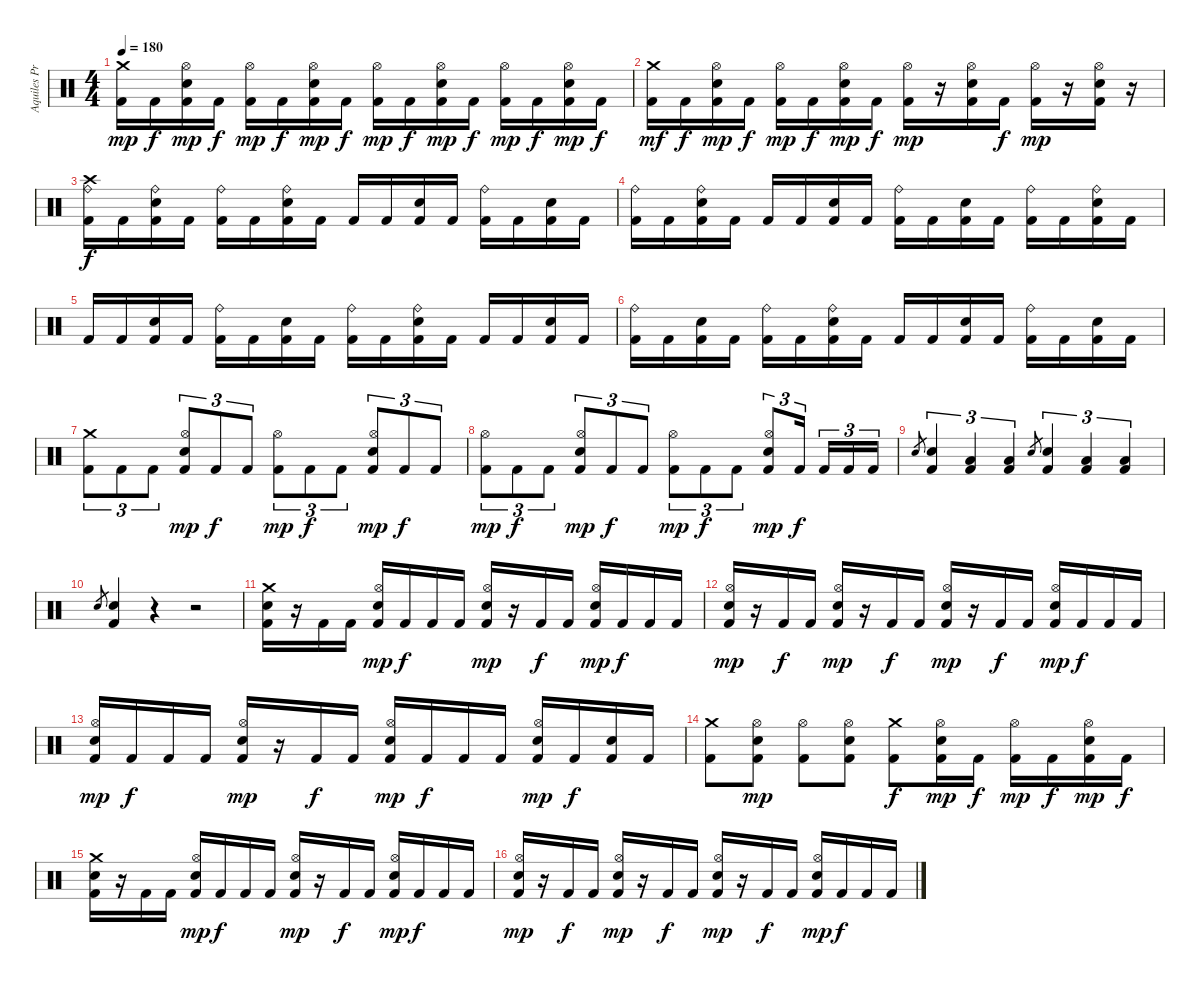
\track ("Aquiles Priester" "Aquiles Pr") {instrument percussion}
\staff {score}
\articulation defaults
\ts (4 4)
\tempo 180
\clef neutral
\ks c
("Crash medium (hit)" "Kick (hit) 2").16{dy mp} "Kick (hit) 2".16{dy f} ("Hi-Hat (open)" "Snare (hit) 2" "Kick (hit) 2").16{dy mp} "Kick (hit) 2".16{dy f} ("Hi-Hat (open)" "Kick (hit) 2").16{dy mp} "Kick (hit) 2".16{dy f} ("Hi-Hat (open)" "Snare (hit) 2" "Kick (hit) 2").16{dy mp} "Kick (hit) 2".16{dy f} ("Hi-Hat (open)" "Kick (hit) 2").16{dy mp} "Kick (hit) 2".16{dy f} ("Hi-Hat (open)" "Snare (hit) 2" "Kick (hit) 2").16{dy mp} "Kick (hit) 2".16{dy f} ("Hi-Hat (open)" "Kick (hit) 2").16{dy mp} "Kick (hit) 2".16{dy f} ("Hi-Hat (open)" "Snare (hit) 2" "Kick (hit) 2").16{dy mp} "Kick (hit) 2".16{dy f} |
("Crash medium (hit)" "Kick (hit) 2").16{dy mf} "Kick (hit) 2".16{dy f} ("Hi-Hat (open)" "Snare (hit) 2" "Kick (hit) 2").16{dy mp} "Kick (hit) 2".16{dy f} ("Hi-Hat (open)" "Kick (hit) 2").16{dy mp} "Kick (hit) 2".16{dy f} ("Hi-Hat (open)" "Snare (hit) 2" "Kick (hit) 2").16{dy mp} "Kick (hit) 2".16{dy f} ("Hi-Hat (open)" "Kick (hit) 2").16{dy mp} r.16 ("Hi-Hat (open)" "Snare (hit) 2" "Kick (hit) 2").16 "Kick (hit) 2".16{dy f} ("Hi-Hat (open)" "Kick (hit) 2").16{dy mp} r.16 ("Hi-Hat (open)" "Snare (hit) 2" "Kick (hit) 2").16 r.16 |
("Crash high (hit)" "Ride (bell)" "Kick (hit) 2").16{dy f} "Kick (hit) 2".16 ("Ride (bell)" "Snare (hit) 2" "Kick (hit) 2").16 "Kick (hit) 2".16 ("Ride (bell)" "Kick (hit) 2").16 "Kick (hit) 2".16 ("Ride (bell)" "Snare (hit) 2" "Kick (hit) 2").16 "Kick (hit) 2".16 "Kick (hit) 2".16 "Kick (hit) 2".16 ("Snare (hit) 2" "Kick (hit) 2").16 "Kick (hit) 2".16 ("Ride (bell)" "Kick (hit) 2").16 "Kick (hit) 2".16 ("Snare (hit) 2" "Kick (hit) 2").16 "Kick (hit) 2".16 |
("Ride (bell)" "Kick (hit) 2").16 "Kick (hit) 2".16 ("Ride (bell)" "Snare (hit) 2" "Kick (hit) 2").16 "Kick (hit) 2".16 "Kick (hit) 2".16 "Kick (hit) 2".16 ("Snare (hit) 2" "Kick (hit) 2").16 "Kick (hit) 2".16 ("Ride (bell)" "Kick (hit) 2").16 "Kick (hit) 2".16 ("Snare (hit) 2" "Kick (hit) 2").16 "Kick (hit) 2".16 ("Ride (bell)" "Kick (hit) 2").16 "Kick (hit) 2".16 ("Ride (bell)" "Snare (hit) 2" "Kick (hit) 2").16 "Kick (hit) 2".16 |
"Kick (hit) 2".16 "Kick (hit) 2".16 ("Snare (hit) 2" "Kick (hit) 2").16 "Kick (hit) 2".16 ("Ride (bell)" "Kick (hit) 2").16 "Kick (hit) 2".16 ("Snare (hit) 2" "Kick (hit) 2").16 "Kick (hit) 2".16 ("Ride (bell)" "Kick (hit) 2").16 "Kick (hit) 2".16 ("Ride (bell)" "Snare (hit) 2" "Kick (hit) 2").16 "Kick (hit) 2".16 "Kick (hit) 2".16 "Kick (hit) 2".16 ("Snare (hit) 2" "Kick (hit) 2").16 "Kick (hit) 2".16 |
("Ride (bell)" "Kick (hit) 2").16 "Kick (hit) 2".16 ("Snare (hit) 2" "Kick (hit) 2").16 "Kick (hit) 2".16 ("Ride (bell)" "Kick (hit) 2").16 "Kick (hit) 2".16 ("Ride (bell)" "Snare (hit) 2" "Kick (hit) 2").16 "Kick (hit) 2".16 "Kick (hit) 2".16 "Kick (hit) 2".16 ("Snare (hit) 2" "Kick (hit) 2").16 "Kick (hit) 2".16 ("Ride (bell)" "Kick (hit) 2").16 "Kick (hit) 2".16 ("Snare (hit) 2" "Kick (hit) 2").16 "Kick (hit) 2".16 |
("Crash medium (hit)" "Kick (hit) 2").8{tu (3 2)} "Kick (hit) 2".8{tu (3 2)} "Kick (hit) 2".8{tu (3 2)} ("Hi-Hat (open)" "Snare (hit) 2" "Kick (hit) 2").8{tu (3 2) dy mp} "Kick (hit) 2".8{tu (3 2) dy f} "Kick (hit) 2".8{tu (3 2)} ("Hi-Hat (open)" "Kick (hit) 2").8{tu (3 2) dy mp} "Kick (hit) 2".8{tu (3 2) dy f} "Kick (hit) 2".8{tu (3 2)} ("Hi-Hat (open)" "Snare (hit) 2" "Kick (hit) 2").8{tu (3 2) dy mp} "Kick (hit) 2".8{tu (3 2) dy f} "Kick (hit) 2".8{tu (3 2)} |
("Hi-Hat (open)" "Kick (hit) 2").8{tu (3 2) dy mp} "Kick (hit) 2".8{tu (3 2) dy f} "Kick (hit) 2".8{tu (3 2)} ("Hi-Hat (open)" "Snare (hit) 2" "Kick (hit) 2").8{tu (3 2) dy mp} "Kick (hit) 2".8{tu (3 2) dy f} "Kick (hit) 2".8{tu (3 2)} ("Hi-Hat (open)" "Kick (hit) 2").8{tu (3 2) dy mp} "Kick (hit) 2".8{tu (3 2) dy f} "Kick (hit) 2".8{tu (3 2)} ("Hi-Hat (open)" "Snare (hit) 2" "Kick (hit) 2").8{tu (3 2) dy mp} "Kick (hit) 2".16{tu (3 2) dy f} "Kick (hit) 2".16{tu (3 2)} "Kick (hit) 2".16{tu (3 2)} "Kick (hit) 2".16{tu (3 2)} |
"Snare (hit) 2".8{gr} ("Snare (hit) 2" "Kick (hit) 2").4{tu (3 2)} ("Low Floor Tom (hit)" "Kick (hit) 2").4{tu (3 2)} ("Low Floor Tom (hit)" "Kick (hit) 2").4{tu (3 2)} "Snare (hit) 2".8{gr} ("Snare (hit) 2" "Kick (hit) 2").4{tu (3 2)} ("Low Floor Tom (hit)" "Kick (hit) 2").4{tu (3 2)} ("Low Floor Tom (hit)" "Kick (hit) 2").4{tu (3 2)} |
"Snare (hit) 2".8{gr} ("Snare (hit) 2" "Kick (hit) 2").4 r.4 r.2 |
("Crash medium (hit)" "Snare (hit) 2" "Kick (hit) 2").16 r.16 "Kick (hit) 2".16 "Kick (hit) 2".16 ("Hi-Hat (open)" "Snare (hit) 2" "Kick (hit) 2").16{dy mp} "Kick (hit) 2".16{dy f} "Kick (hit) 2".16 "Kick (hit) 2".16 ("Hi-Hat (open)" "Snare (hit) 2" "Kick (hit) 2").16{dy mp} r.16 "Kick (hit) 2".16{dy f} "Kick (hit) 2".16 ("Hi-Hat (open)" "Snare (hit) 2" "Kick (hit) 2").16{dy mp} "Kick (hit) 2".16{dy f} "Kick (hit) 2".16 "Kick (hit) 2".16 |
("Hi-Hat (open)" "Snare (hit) 2" "Kick (hit) 2").16{dy mp} r.16 "Kick (hit) 2".16{dy f} "Kick (hit) 2".16 ("Hi-Hat (open)" "Snare (hit) 2" "Kick (hit) 2").16{dy mp} r.16 "Kick (hit) 2".16{dy f} "Kick (hit) 2".16 ("Hi-Hat (open)" "Snare (hit) 2" "Kick (hit) 2").16{dy mp} r.16 "Kick (hit) 2".16{dy f} "Kick (hit) 2".16 ("Hi-Hat (open)" "Snare (hit) 2" "Kick (hit) 2").16{dy mp} "Kick (hit) 2".16{dy f} "Kick (hit) 2".16 "Kick (hit) 2".16 |
("Hi-Hat (open)" "Snare (hit) 2" "Kick (hit) 2").16{dy mp} "Kick (hit) 2".16{dy f} "Kick (hit) 2".16 "Kick (hit) 2".16 ("Hi-Hat (open)" "Snare (hit) 2" "Kick (hit) 2").16{dy mp} r.16 "Kick (hit) 2".16{dy f} "Kick (hit) 2".16 ("Hi-Hat (open)" "Snare (hit) 2" "Kick (hit) 2").16{dy mp} "Kick (hit) 2".16{dy f} "Kick (hit) 2".16 "Kick (hit) 2".16 ("Hi-Hat (open)" "Snare (hit) 2" "Kick (hit) 2").16{dy mp} "Kick (hit) 2".16{dy f} ("Snare (hit) 2" "Kick (hit) 2").16 "Kick (hit) 2".16 |
("Crash medium (hit)" "Kick (hit) 2").8 ("Hi-Hat (open)" "Snare (hit) 2" "Kick (hit) 2").8{dy mp} ("Hi-Hat (open)" "Kick (hit) 2").8 ("Hi-Hat (open)" "Snare (hit) 2" "Kick (hit) 2").8 ("Crash medium (hit)" "Kick (hit) 2").8{dy f} ("Hi-Hat (open)" "Snare (hit) 2" "Kick (hit) 2").16{dy mp} "Kick (hit) 2".16{dy f} ("Hi-Hat (open)" "Kick (hit) 2").16{dy mp} "Kick (hit) 2".16{dy f} ("Hi-Hat (open)" "Snare (hit) 2" "Kick (hit) 2").16{dy mp} "Kick (hit) 2".16{dy f} |
("Crash medium (hit)" "Snare (hit) 2" "Kick (hit) 2").16 r.16 "Kick (hit) 2".16 "Kick (hit) 2".16 ("Hi-Hat (open)" "Snare (hit) 2" "Kick (hit) 2").16{dy mp} "Kick (hit) 2".16{dy f} "Kick (hit) 2".16 "Kick (hit) 2".16 ("Hi-Hat (open)" "Snare (hit) 2" "Kick (hit) 2").16{dy mp} r.16 "Kick (hit) 2".16{dy f} "Kick (hit) 2".16 ("Hi-Hat (open)" "Snare (hit) 2" "Kick (hit) 2").16{dy mp} "Kick (hit) 2".16{dy f} "Kick (hit) 2".16 "Kick (hit) 2".16 |
("Hi-Hat (open)" "Snare (hit) 2" "Kick (hit) 2").16{dy mp} r.16 "Kick (hit) 2".16{dy f} "Kick (hit) 2".16 ("Hi-Hat (open)" "Snare (hit) 2" "Kick (hit) 2").16{dy mp} r.16 "Kick (hit) 2".16{dy f} "Kick (hit) 2".16 ("Hi-Hat (open)" "Snare (hit) 2" "Kick (hit) 2").16{dy mp} r.16 "Kick (hit) 2".16{dy f} "Kick (hit) 2".16 ("Hi-Hat (open)" "Snare (hit) 2" "Kick (hit) 2").16{dy mp} "Kick (hit) 2".16{dy f} "Kick (hit) 2".16 "Kick (hit) 2".16
